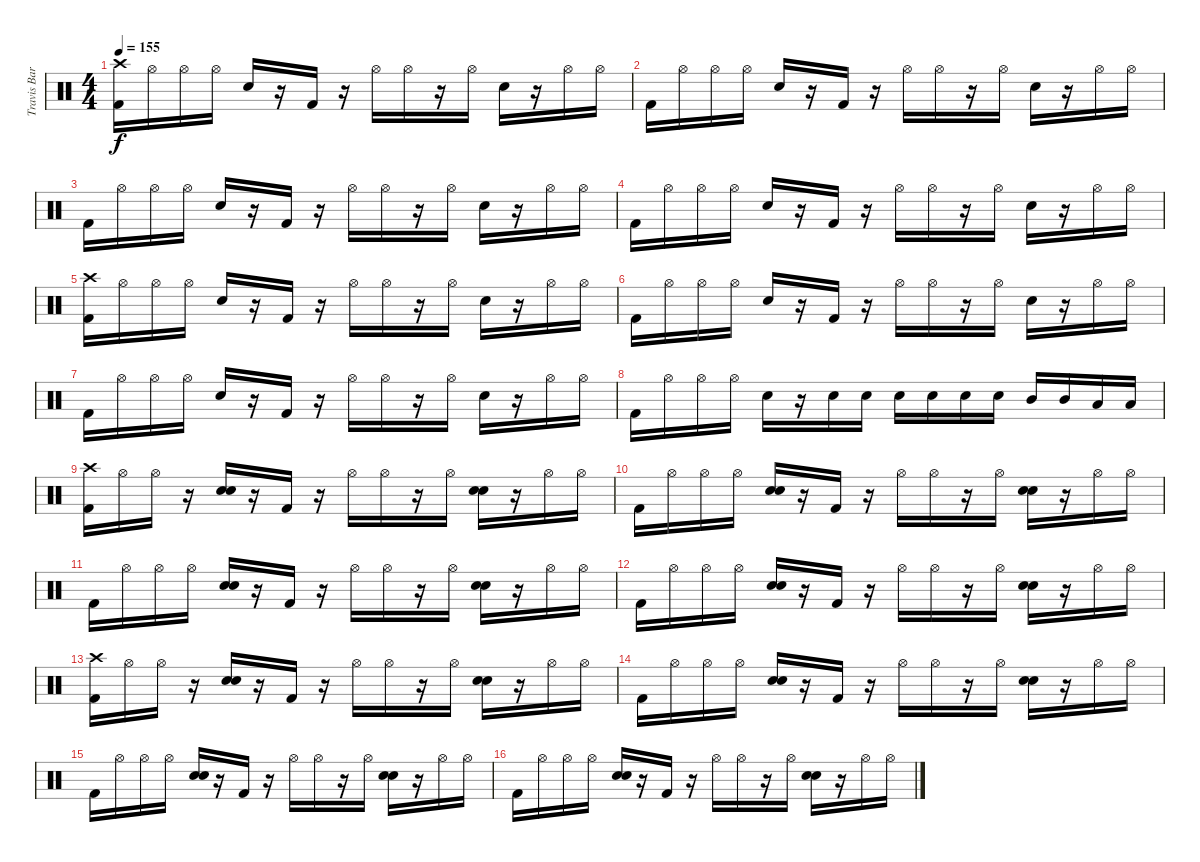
\track ("Travis Barker Drums" "Travis Bar") {instrument percussion}
\staff {score}
\articulation defaults
\ts (4 4)
\tempo 155
\clef neutral
\ks c
("Crash high (hit)" "Kick (hit) 2").16{dy f} "Hi-Hat (open)".16 "Hi-Hat (open)".16 "Hi-Hat (open)".16 "Snare (hit) 2".16 r.16 "Kick (hit) 2".16 r.16 "Hi-Hat (open)".16 "Hi-Hat (open)".16 r.16 "Hi-Hat (open)".16 "Snare (hit) 2".16 r.16 "Hi-Hat (open)".16 "Hi-Hat (open)".16 |
"Kick (hit) 2".16 "Hi-Hat (open)".16 "Hi-Hat (open)".16 "Hi-Hat (open)".16 "Snare (hit) 2".16 r.16 "Kick (hit) 2".16 r.16 "Hi-Hat (open)".16 "Hi-Hat (open)".16 r.16 "Hi-Hat (open)".16 "Snare (hit) 2".16 r.16 "Hi-Hat (open)".16 "Hi-Hat (open)".16 |
"Kick (hit) 2".16 "Hi-Hat (open)".16 "Hi-Hat (open)".16 "Hi-Hat (open)".16 "Snare (hit) 2".16 r.16 "Kick (hit) 2".16 r.16 "Hi-Hat (open)".16 "Hi-Hat (open)".16 r.16 "Hi-Hat (open)".16 "Snare (hit) 2".16 r.16 "Hi-Hat (open)".16 "Hi-Hat (open)".16 |
"Kick (hit) 2".16 "Hi-Hat (open)".16 "Hi-Hat (open)".16 "Hi-Hat (open)".16 "Snare (hit) 2".16 r.16 "Kick (hit) 2".16 r.16 "Hi-Hat (open)".16 "Hi-Hat (open)".16 r.16 "Hi-Hat (open)".16 "Snare (hit) 2".16 r.16 "Hi-Hat (open)".16 "Hi-Hat (open)".16 |
("Crash high (hit)" "Kick (hit) 2").16 "Hi-Hat (open)".16 "Hi-Hat (open)".16 "Hi-Hat (open)".16 "Snare (hit) 2".16 r.16 "Kick (hit) 2".16 r.16 "Hi-Hat (open)".16 "Hi-Hat (open)".16 r.16 "Hi-Hat (open)".16 "Snare (hit) 2".16 r.16 "Hi-Hat (open)".16 "Hi-Hat (open)".16 |
"Kick (hit) 2".16 "Hi-Hat (open)".16 "Hi-Hat (open)".16 "Hi-Hat (open)".16 "Snare (hit) 2".16 r.16 "Kick (hit) 2".16 r.16 "Hi-Hat (open)".16 "Hi-Hat (open)".16 r.16 "Hi-Hat (open)".16 "Snare (hit) 2".16 r.16 "Hi-Hat (open)".16 "Hi-Hat (open)".16 |
"Kick (hit) 2".16 "Hi-Hat (open)".16 "Hi-Hat (open)".16 "Hi-Hat (open)".16 "Snare (hit) 2".16 r.16 "Kick (hit) 2".16 r.16 "Hi-Hat (open)".16 "Hi-Hat (open)".16 r.16 "Hi-Hat (open)".16 "Snare (hit) 2".16 r.16 "Hi-Hat (open)".16 "Hi-Hat (open)".16 |
"Kick (hit) 2".16 "Hi-Hat (open)".16 "Hi-Hat (open)".16 "Hi-Hat (open)".16 "Snare (hit) 2".16 r.16 "Snare (hit) 2".16 "Snare (hit) 2".16 "Snare (hit) 2".16 "Snare (hit) 2".16 "Snare (hit) 2".16 "Snare (hit) 2".16 "Mid Tom (hit)".16 "Mid Tom (hit)".16 "Low Tom (hit)".16 "Low Tom (hit)".16 |
("Crash high (hit)" "Kick (hit) 2").16 "Hi-Hat (open)".16 "Hi-Hat (open)".16 r.16 ("Hand Clap (hit)" "Snare (hit) 2").16 r.16 "Kick (hit) 2".16 r.16 "Hi-Hat (open)".16 "Hi-Hat (open)".16 r.16 "Hi-Hat (open)".16 ("Hand Clap (hit)" "Snare (hit) 2").16 r.16 "Hi-Hat (open)".16 "Hi-Hat (open)".16 |
"Kick (hit) 2".16 "Hi-Hat (open)".16 "Hi-Hat (open)".16 "Hi-Hat (open)".16 ("Hand Clap (hit)" "Snare (hit) 2").16 r.16 "Kick (hit) 2".16 r.16 "Hi-Hat (open)".16 "Hi-Hat (open)".16 r.16 "Hi-Hat (open)".16 ("Hand Clap (hit)" "Snare (hit) 2").16 r.16 "Hi-Hat (open)".16 "Hi-Hat (open)".16 |
"Kick (hit) 2".16 "Hi-Hat (open)".16 "Hi-Hat (open)".16 "Hi-Hat (open)".16 ("Hand Clap (hit)" "Snare (hit) 2").16 r.16 "Kick (hit) 2".16 r.16 "Hi-Hat (open)".16 "Hi-Hat (open)".16 r.16 "Hi-Hat (open)".16 ("Hand Clap (hit)" "Snare (hit) 2").16 r.16 "Hi-Hat (open)".16 "Hi-Hat (open)".16 |
"Kick (hit) 2".16 "Hi-Hat (open)".16 "Hi-Hat (open)".16 "Hi-Hat (open)".16 ("Hand Clap (hit)" "Snare (hit) 2").16 r.16 "Kick (hit) 2".16 r.16 "Hi-Hat (open)".16 "Hi-Hat (open)".16 r.16 "Hi-Hat (open)".16 ("Hand Clap (hit)" "Snare (hit) 2").16 r.16 "Hi-Hat (open)".16 "Hi-Hat (open)".16 |
("Crash high (hit)" "Kick (hit) 2").16 "Hi-Hat (open)".16 "Hi-Hat (open)".16 r.16 ("Hand Clap (hit)" "Snare (hit) 2").16 r.16 "Kick (hit) 2".16 r.16 "Hi-Hat (open)".16 "Hi-Hat (open)".16 r.16 "Hi-Hat (open)".16 ("Hand Clap (hit)" "Snare (hit) 2").16 r.16 "Hi-Hat (open)".16 "Hi-Hat (open)".16 |
"Kick (hit) 2".16 "Hi-Hat (open)".16 "Hi-Hat (open)".16 "Hi-Hat (open)".16 ("Hand Clap (hit)" "Snare (hit) 2").16 r.16 "Kick (hit) 2".16 r.16 "Hi-Hat (open)".16 "Hi-Hat (open)".16 r.16 "Hi-Hat (open)".16 ("Hand Clap (hit)" "Snare (hit) 2").16 r.16 "Hi-Hat (open)".16 "Hi-Hat (open)".16 |
"Kick (hit) 2".16 "Hi-Hat (open)".16 "Hi-Hat (open)".16 "Hi-Hat (open)".16 ("Hand Clap (hit)" "Snare (hit) 2").16 r.16 "Kick (hit) 2".16 r.16 "Hi-Hat (open)".16 "Hi-Hat (open)".16 r.16 "Hi-Hat (open)".16 ("Hand Clap (hit)" "Snare (hit) 2").16 r.16 "Hi-Hat (open)".16 "Hi-Hat (open)".16 |
"Kick (hit) 2".16 "Hi-Hat (open)".16 "Hi-Hat (open)".16 "Hi-Hat (open)".16 ("Hand Clap (hit)" "Snare (hit) 2").16 r.16 "Kick (hit) 2".16 r.16 "Hi-Hat (open)".16 "Hi-Hat (open)".16 r.16 "Hi-Hat (open)".16 ("Hand Clap (hit)" "Snare (hit) 2").16 r.16 "Hi-Hat (open)".16 "Hi-Hat (open)".16
